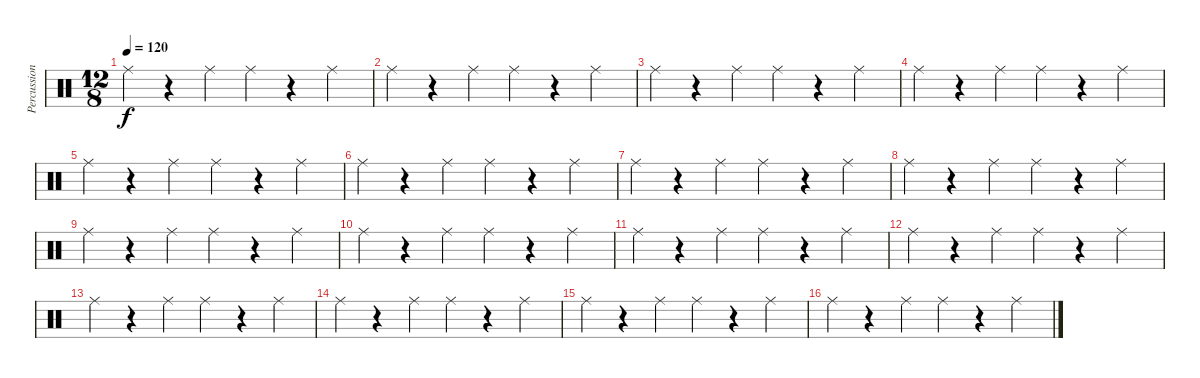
\track ("Percussion" "Percussion") {instrument percussion}
\staff {score}
\articulation defaults
\ts (12 8)
\tempo 120
\clef neutral
\ks c "Ride (middle)".4{dy f}
r.4 "Ride (middle)".4 "Ride (middle)".4 r.4 "Ride (middle)".4 |
"Ride (middle)".4 r.4 "Ride (middle)".4 "Ride (middle)".4 r.4 "Ride (middle)".4 |
"Ride (middle)".4 r.4 "Ride (middle)".4 "Ride (middle)".4 r.4 "Ride (middle)".4 |
"Ride (middle)".4 r.4 "Ride (middle)".4 "Ride (middle)".4 r.4 "Ride (middle)".4 |
"Ride (middle)".4 r.4 "Ride (middle)".4 "Ride (middle)".4 r.4 "Ride (middle)".4 |
"Ride (middle)".4 r.4 "Ride (middle)".4 "Ride (middle)".4 r.4 "Ride (middle)".4 |
"Ride (middle)".4 r.4 "Ride (middle)".4 "Ride (middle)".4 r.4 "Ride (middle)".4 |
"Ride (middle)".4 r.4 "Ride (middle)".4 "Ride (middle)".4 r.4 "Ride (middle)".4 |
"Ride (middle)".4 r.4 "Ride (middle)".4 "Ride (middle)".4 r.4 "Ride (middle)".4 |
"Ride (middle)".4 r.4 "Ride (middle)".4 "Ride (middle)".4 r.4 "Ride (middle)".4 |
"Ride (middle)".4 r.4 "Ride (middle)".4 "Ride (middle)".4 r.4 "Ride (middle)".4 |
"Ride (middle)".4 r.4 "Ride (middle)".4 "Ride (middle)".4 r.4 "Ride (middle)".4 |
"Ride (middle)".4 r.4 "Ride (middle)".4 "Ride (middle)".4 r.4 "Ride (middle)".4 |
"Ride (middle)".4 r.4 "Ride (middle)".4 "Ride (middle)".4 r.4 "Ride (middle)".4 |
"Ride (middle)".4 r.4 "Ride (middle)".4 "Ride (middle)".4 r.4 "Ride (middle)".4 |
"Ride (middle)".4 r.4 "Ride (middle)".4 "Ride (middle)".4 r.4 "Ride (middle)".4
